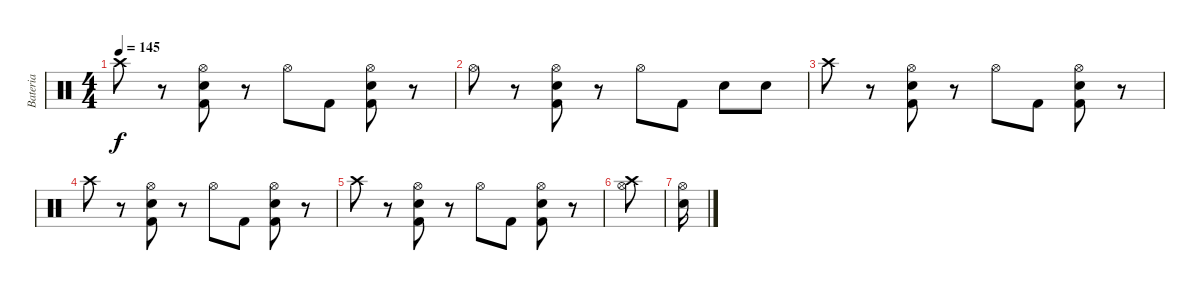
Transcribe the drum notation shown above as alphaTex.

\track ("Bateria" "Bateria") {instrument percussion}
\staff {score}
\articulation defaults
\ts (4 4)
\tempo 145
\clef neutral
\ks c "Crash high (hit)".8{dy f}
r.8 ("Hi-Hat (open)" "Electric Snare (hit)" "Kick (hit) 2").8 r.8 "Hi-Hat (open)".8 "Kick (hit) 2".8 ("Hi-Hat (open)" "Electric Snare (hit)" "Kick (hit) 2").8 r.8 |
"Hi-Hat (open)".8 r.8 ("Hi-Hat (open)" "Electric Snare (hit)" "Kick (hit) 2").8 r.8 "Hi-Hat (open)".8 "Kick (hit) 2".8 "Electric Snare (hit)".8 "Electric Snare (hit)".8 |
"Crash high (hit)".8 r.8 ("Hi-Hat (open)" "Electric Snare (hit)" "Kick (hit) 2").8 r.8 "Hi-Hat (open)".8 "Kick (hit) 2".8 ("Hi-Hat (open)" "Electric Snare (hit)" "Kick (hit) 2").8 r.8 |
"Crash high (hit)".8 r.8 ("Hi-Hat (open)" "Electric Snare (hit)" "Kick (hit) 2").8 r.8 "Hi-Hat (open)".8 "Kick (hit) 2".8 ("Hi-Hat (open)" "Electric Snare (hit)" "Kick (hit) 2").8 r.8 |
"Crash high (hit)".8 r.8 ("Hi-Hat (open)" "Electric Snare (hit)" "Kick (hit) 2").8 r.8 "Hi-Hat (open)".8 "Kick (hit) 2".8 ("Hi-Hat (open)" "Electric Snare (hit)" "Kick (hit) 2").8 r.8 |
("Crash high (hit)" "Hi-Hat (open)").8 |
("Electric Snare (hit)" "Hi-Hat (open)").16
